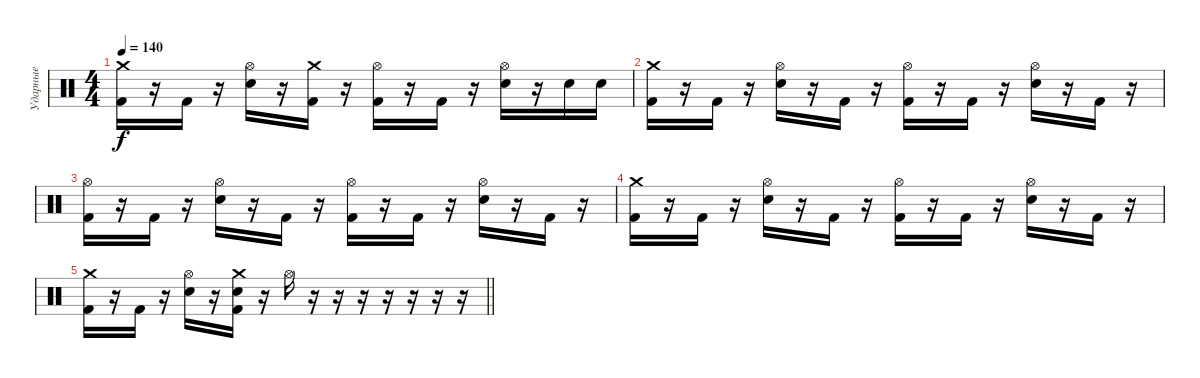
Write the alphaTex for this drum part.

\track ("Ударные" "Ударные") {instrument percussion}
\staff {score}
\articulation defaults
\ts (4 4)
\tempo 140
\clef neutral
\ks c
("Crash medium (hit)" "Kick (hit) 2").16{dy f} r.16 "Kick (hit) 2".16 r.16 ("Hi-Hat (open)" "Electric Snare (hit)").16 r.16 ("Crash medium (hit)" "Kick (hit) 2").16 r.16 ("Hi-Hat (open)" "Kick (hit) 2").16 r.16 "Kick (hit) 2".16 r.16 ("Hi-Hat (open)" "Electric Snare (hit)").16 r.16 "Electric Snare (hit)".16 "Electric Snare (hit)".16 |
("Crash medium (hit)" "Kick (hit) 2").16 r.16 "Kick (hit) 2".16 r.16 ("Hi-Hat (open)" "Electric Snare (hit)").16 r.16 "Kick (hit) 2".16 r.16 ("Hi-Hat (open)" "Kick (hit) 2").16 r.16 "Kick (hit) 2".16 r.16 ("Hi-Hat (open)" "Electric Snare (hit)").16 r.16 "Kick (hit) 2".16 r.16 |
("Hi-Hat (open)" "Kick (hit) 2").16 r.16 "Kick (hit) 2".16 r.16 ("Hi-Hat (open)" "Electric Snare (hit)").16 r.16 "Kick (hit) 2".16 r.16 ("Hi-Hat (open)" "Kick (hit) 2").16 r.16 "Kick (hit) 2".16 r.16 ("Hi-Hat (open)" "Electric Snare (hit)").16 r.16 "Kick (hit) 2".16 r.16 |
("Crash medium (hit)" "Kick (hit) 2").16 r.16 "Kick (hit) 2".16 r.16 ("Hi-Hat (open)" "Electric Snare (hit)").16 r.16 "Kick (hit) 2".16 r.16 ("Hi-Hat (open)" "Kick (hit) 2").16 r.16 "Kick (hit) 2".16 r.16 ("Hi-Hat (open)" "Electric Snare (hit)").16 r.16 "Kick (hit) 2".16 r.16 |
\barLineRight lightlight
("Crash medium (hit)" "Kick (hit) 2").16 r.16 "Kick (hit) 2".16 r.16 ("Hi-Hat (open)" "Electric Snare (hit)").16 r.16 ("Crash medium (hit)" "Electric Snare (hit)" "Kick (hit) 2").16 r.16 "Hi-Hat (open)".16 r.16 r.16 r.16 r.16 r.16 r.16 r.16
